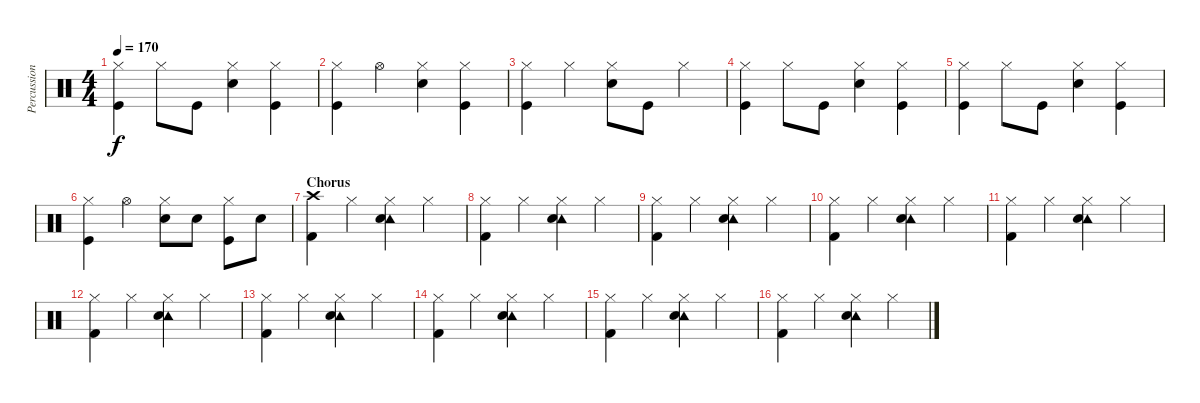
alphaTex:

\track ("Percussion" "Percussion") {instrument percussion}
\staff {score}
\articulation defaults
\ts (4 4)
\tempo 170
\clef neutral
\ks c
("Hi-Hat (closed)" "Kick (hit)").4{dy f} "Hi-Hat (closed)".8 "Kick (hit)".8 ("Hi-Hat (closed)" "Electric Snare (hit)").4 ("Hi-Hat (closed)" "Kick (hit)").4 |
("Hi-Hat (closed)" "Kick (hit)").4 "Hi-Hat (open)".4 ("Hi-Hat (closed)" "Electric Snare (hit)").4 ("Hi-Hat (closed)" "Kick (hit)").4 |
("Hi-Hat (closed)" "Kick (hit)").4 "Hi-Hat (closed)".4 ("Hi-Hat (closed)" "Electric Snare (hit)").8 "Kick (hit)".8 "Hi-Hat (closed)".4 |
("Hi-Hat (closed)" "Kick (hit)").4 "Hi-Hat (closed)".8 "Kick (hit)".8 ("Hi-Hat (closed)" "Electric Snare (hit)").4 ("Hi-Hat (closed)" "Kick (hit)").4 |
("Hi-Hat (closed)" "Kick (hit)").4 "Hi-Hat (closed)".8 "Kick (hit)".8 ("Hi-Hat (closed)" "Electric Snare (hit)").4 ("Hi-Hat (closed)" "Kick (hit)").4 |
("Hi-Hat (closed)" "Kick (hit)").4 "Hi-Hat (open)".4 ("Hi-Hat (closed)" "Electric Snare (hit)").8 "Electric Snare (hit)".8 ("Hi-Hat (closed)" "Kick (hit)").8 "Electric Snare (hit)".8 |
\section ("" "Chorus")
("Crash high (hit)" "Kick (hit) 2").4 "Hi-Hat (closed)".4 ("Tambourine (hit)" "Hi-Hat (closed)" "Electric Snare (hit)").4 "Hi-Hat (closed)".4 |
("Hi-Hat (closed)" "Kick (hit) 2").4 "Hi-Hat (closed)".4 ("Tambourine (hit)" "Hi-Hat (closed)" "Electric Snare (hit)").4 "Hi-Hat (closed)".4 |
("Hi-Hat (closed)" "Kick (hit) 2").4 "Hi-Hat (closed)".4 ("Tambourine (hit)" "Hi-Hat (closed)" "Electric Snare (hit)").4 "Hi-Hat (closed)".4 |
("Hi-Hat (closed)" "Kick (hit) 2").4 "Hi-Hat (closed)".4 ("Tambourine (hit)" "Hi-Hat (closed)" "Electric Snare (hit)").4 "Hi-Hat (closed)".4 |
("Hi-Hat (closed)" "Kick (hit) 2").4 "Hi-Hat (closed)".4 ("Tambourine (hit)" "Hi-Hat (closed)" "Electric Snare (hit)").4 "Hi-Hat (closed)".4 |
("Hi-Hat (closed)" "Kick (hit) 2").4 "Hi-Hat (closed)".4 ("Tambourine (hit)" "Hi-Hat (closed)" "Electric Snare (hit)").4 "Hi-Hat (closed)".4 |
("Hi-Hat (closed)" "Kick (hit) 2").4 "Hi-Hat (closed)".4 ("Tambourine (hit)" "Hi-Hat (closed)" "Electric Snare (hit)").4 "Hi-Hat (closed)".4 |
("Hi-Hat (closed)" "Kick (hit) 2").4 "Hi-Hat (closed)".4 ("Tambourine (hit)" "Hi-Hat (closed)" "Electric Snare (hit)").4 "Hi-Hat (closed)".4 |
("Hi-Hat (closed)" "Kick (hit) 2").4 "Hi-Hat (closed)".4 ("Tambourine (hit)" "Hi-Hat (closed)" "Electric Snare (hit)").4 "Hi-Hat (closed)".4 |
("Hi-Hat (closed)" "Kick (hit) 2").4 "Hi-Hat (closed)".4 ("Tambourine (hit)" "Hi-Hat (closed)" "Electric Snare (hit)").4 "Hi-Hat (closed)".4
